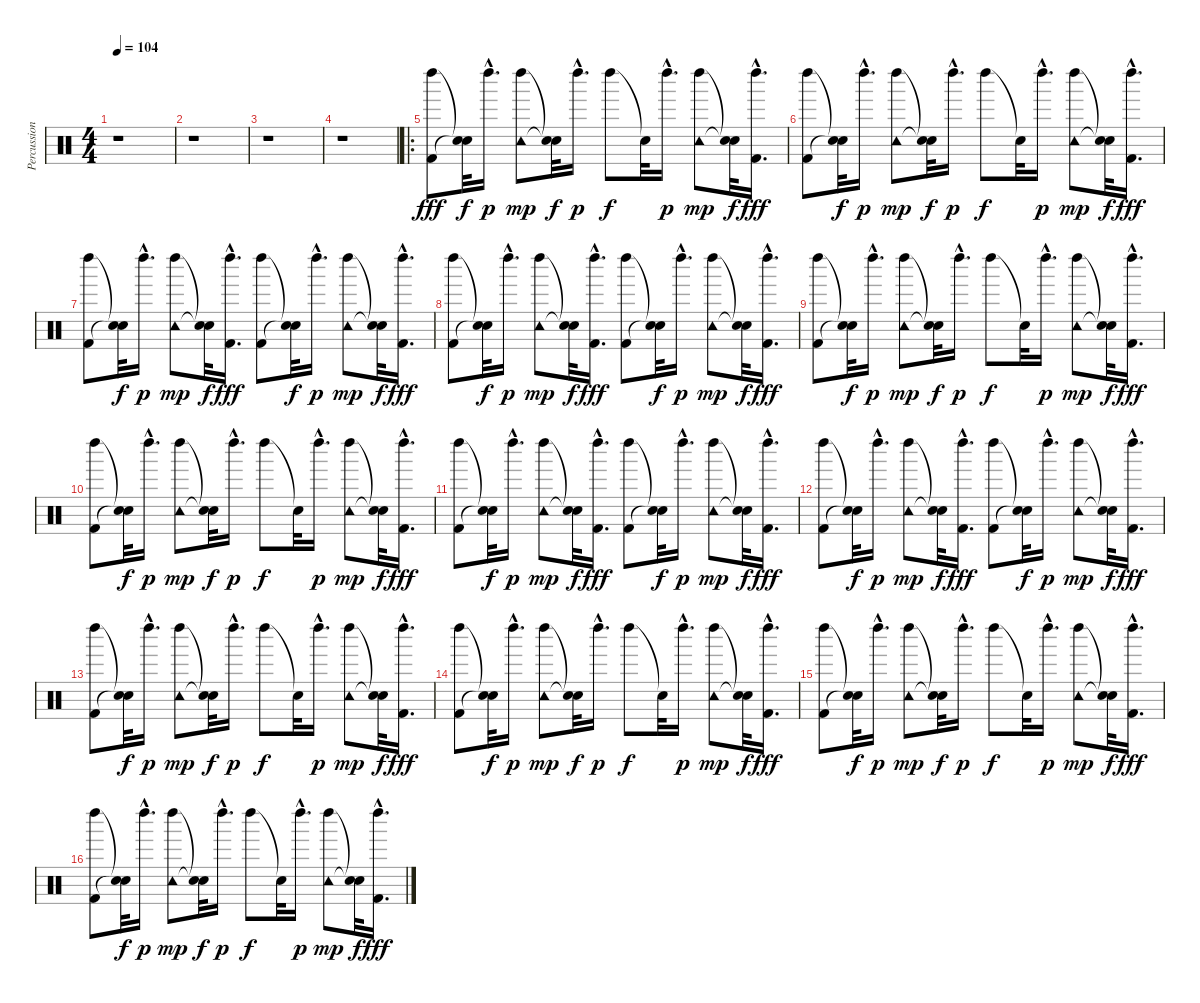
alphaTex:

\track ("Percussions" "Percussion") {instrument percussion}
\staff {score}
\articulation defaults
\ts (4 4)
\tempo 104
\clef neutral
\ks c
r.1{dy fff} |
r.1 |
r.1 |
r.1 |
\ro
("Left Maraca (hit)" "Kick (hit) 2").8 ("Snare (hit)"{t} "Snare (hit)"{t}).32{dy f} "Left Maraca (hit)"{hac}.16{d dy p} ("Left Maraca (hit)" "Tambourine (hit)").8{dy mp} ("Snare (hit)"{t} "Snare (hit)"{t}).32{dy f} "Left Maraca (hit)"{hac}.16{d dy p} "Left Maraca (hit)".8{dy f} "Snare (hit)"{t}.32 "Left Maraca (hit)"{hac}.16{d dy p} ("Left Maraca (hit)" "Tambourine (hit)").8{dy mp} ("Snare (hit)"{t} "Snare (hit)"{t}).32{dy f} ("Left Maraca (hit)"{hac} "Kick (hit) 2"{hac}).16{d dy fff} |
("Left Maraca (hit)" "Kick (hit) 2").8 ("Snare (hit)"{t} "Snare (hit)"{t}).32{dy f} "Left Maraca (hit)"{hac}.16{d dy p} ("Left Maraca (hit)" "Tambourine (hit)").8{dy mp} ("Snare (hit)"{t} "Snare (hit)"{t}).32{dy f} "Left Maraca (hit)"{hac}.16{d dy p} "Left Maraca (hit)".8{dy f} "Snare (hit)"{t}.32 "Left Maraca (hit)"{hac}.16{d dy p} ("Left Maraca (hit)" "Tambourine (hit)").8{dy mp} ("Snare (hit)"{t} "Snare (hit)"{t}).32{dy f} ("Left Maraca (hit)"{hac} "Kick (hit) 2"{hac}).16{d dy fff} |
("Left Maraca (hit)" "Kick (hit) 2").8 ("Snare (hit)"{t} "Snare (hit)"{t}).32{dy f} "Left Maraca (hit)"{hac}.16{d dy p} ("Left Maraca (hit)" "Tambourine (hit)").8{dy mp} ("Snare (hit)"{t} "Snare (hit)"{t}).32{dy f} ("Left Maraca (hit)"{hac} "Kick (hit) 2"{hac}).16{d dy fff} ("Left Maraca (hit)" "Kick (hit) 2").8 ("Snare (hit)"{t} "Snare (hit)"{t}).32{dy f} "Left Maraca (hit)"{hac}.16{d dy p} ("Left Maraca (hit)" "Tambourine (hit)").8{dy mp} ("Snare (hit)"{t} "Snare (hit)"{t}).32{dy f} ("Left Maraca (hit)"{hac} "Kick (hit) 2"{hac}).16{d dy fff} |
("Left Maraca (hit)" "Kick (hit) 2").8 ("Snare (hit)"{t} "Snare (hit)"{t}).32{dy f} "Left Maraca (hit)"{hac}.16{d dy p} ("Left Maraca (hit)" "Tambourine (hit)").8{dy mp} ("Snare (hit)"{t} "Snare (hit)"{t}).32{dy f} ("Left Maraca (hit)"{hac} "Kick (hit) 2"{hac}).16{d dy fff} ("Left Maraca (hit)" "Kick (hit) 2").8 ("Snare (hit)"{t} "Snare (hit)"{t}).32{dy f} "Left Maraca (hit)"{hac}.16{d dy p} ("Left Maraca (hit)" "Tambourine (hit)").8{dy mp} ("Snare (hit)"{t} "Snare (hit)"{t}).32{dy f} ("Left Maraca (hit)"{hac} "Kick (hit) 2"{hac}).16{d dy fff} |
("Left Maraca (hit)" "Kick (hit) 2").8 ("Snare (hit)"{t} "Snare (hit)"{t}).32{dy f} "Left Maraca (hit)"{hac}.16{d dy p} ("Left Maraca (hit)" "Tambourine (hit)").8{dy mp} ("Snare (hit)"{t} "Snare (hit)"{t}).32{dy f} "Left Maraca (hit)"{hac}.16{d dy p} "Left Maraca (hit)".8{dy f} "Snare (hit)"{t}.32 "Left Maraca (hit)"{hac}.16{d dy p} ("Left Maraca (hit)" "Tambourine (hit)").8{dy mp} ("Snare (hit)"{t} "Snare (hit)"{t}).32{dy f} ("Left Maraca (hit)"{hac} "Kick (hit) 2"{hac}).16{d dy fff} |
("Left Maraca (hit)" "Kick (hit) 2").8 ("Snare (hit)"{t} "Snare (hit)"{t}).32{dy f} "Left Maraca (hit)"{hac}.16{d dy p} ("Left Maraca (hit)" "Tambourine (hit)").8{dy mp} ("Snare (hit)"{t} "Snare (hit)"{t}).32{dy f} "Left Maraca (hit)"{hac}.16{d dy p} "Left Maraca (hit)".8{dy f} "Snare (hit)"{t}.32 "Left Maraca (hit)"{hac}.16{d dy p} ("Left Maraca (hit)" "Tambourine (hit)").8{dy mp} ("Snare (hit)"{t} "Snare (hit)"{t}).32{dy f} ("Left Maraca (hit)"{hac} "Kick (hit) 2"{hac}).16{d dy fff} |
("Left Maraca (hit)" "Kick (hit) 2").8 ("Snare (hit)"{t} "Snare (hit)"{t}).32{dy f} "Left Maraca (hit)"{hac}.16{d dy p} ("Left Maraca (hit)" "Tambourine (hit)").8{dy mp} ("Snare (hit)"{t} "Snare (hit)"{t}).32{dy f} ("Left Maraca (hit)"{hac} "Kick (hit) 2"{hac}).16{d dy fff} ("Left Maraca (hit)" "Kick (hit) 2").8 ("Snare (hit)"{t} "Snare (hit)"{t}).32{dy f} "Left Maraca (hit)"{hac}.16{d dy p} ("Left Maraca (hit)" "Tambourine (hit)").8{dy mp} ("Snare (hit)"{t} "Snare (hit)"{t}).32{dy f} ("Left Maraca (hit)"{hac} "Kick (hit) 2"{hac}).16{d dy fff} |
("Left Maraca (hit)" "Kick (hit) 2").8 ("Snare (hit)"{t} "Snare (hit)"{t}).32{dy f} "Left Maraca (hit)"{hac}.16{d dy p} ("Left Maraca (hit)" "Tambourine (hit)").8{dy mp} ("Snare (hit)"{t} "Snare (hit)"{t}).32{dy f} ("Left Maraca (hit)"{hac} "Kick (hit) 2"{hac}).16{d dy fff} ("Left Maraca (hit)" "Kick (hit) 2").8 ("Snare (hit)"{t} "Snare (hit)"{t}).32{dy f} "Left Maraca (hit)"{hac}.16{d dy p} ("Left Maraca (hit)" "Tambourine (hit)").8{dy mp} ("Snare (hit)"{t} "Snare (hit)"{t}).32{dy f} ("Left Maraca (hit)"{hac} "Kick (hit) 2"{hac}).16{d dy fff} |
("Left Maraca (hit)" "Kick (hit) 2").8 ("Snare (hit)"{t} "Snare (hit)"{t}).32{dy f} "Left Maraca (hit)"{hac}.16{d dy p} ("Left Maraca (hit)" "Tambourine (hit)").8{dy mp} ("Snare (hit)"{t} "Snare (hit)"{t}).32{dy f} "Left Maraca (hit)"{hac}.16{d dy p} "Left Maraca (hit)".8{dy f} "Snare (hit)"{t}.32 "Left Maraca (hit)"{hac}.16{d dy p} ("Left Maraca (hit)" "Tambourine (hit)").8{dy mp} ("Snare (hit)"{t} "Snare (hit)"{t}).32{dy f} ("Left Maraca (hit)"{hac} "Kick (hit) 2"{hac}).16{d dy fff} |
("Left Maraca (hit)" "Kick (hit) 2").8 ("Snare (hit)"{t} "Snare (hit)"{t}).32{dy f} "Left Maraca (hit)"{hac}.16{d dy p} ("Left Maraca (hit)" "Tambourine (hit)").8{dy mp} ("Snare (hit)"{t} "Snare (hit)"{t}).32{dy f} "Left Maraca (hit)"{hac}.16{d dy p} "Left Maraca (hit)".8{dy f} "Snare (hit)"{t}.32 "Left Maraca (hit)"{hac}.16{d dy p} ("Left Maraca (hit)" "Tambourine (hit)").8{dy mp} ("Snare (hit)"{t} "Snare (hit)"{t}).32{dy f} ("Left Maraca (hit)"{hac} "Kick (hit) 2"{hac}).16{d dy fff} |
("Left Maraca (hit)" "Kick (hit) 2").8 ("Snare (hit)"{t} "Snare (hit)"{t}).32{dy f} "Left Maraca (hit)"{hac}.16{d dy p} ("Left Maraca (hit)" "Tambourine (hit)").8{dy mp} ("Snare (hit)"{t} "Snare (hit)"{t}).32{dy f} "Left Maraca (hit)"{hac}.16{d dy p} "Left Maraca (hit)".8{dy f} "Snare (hit)"{t}.32 "Left Maraca (hit)"{hac}.16{d dy p} ("Left Maraca (hit)" "Tambourine (hit)").8{dy mp} ("Snare (hit)"{t} "Snare (hit)"{t}).32{dy f} ("Left Maraca (hit)"{hac} "Kick (hit) 2"{hac}).16{d dy fff} |
("Left Maraca (hit)" "Kick (hit) 2").8 ("Snare (hit)"{t} "Snare (hit)"{t}).32{dy f} "Left Maraca (hit)"{hac}.16{d dy p} ("Left Maraca (hit)" "Tambourine (hit)").8{dy mp} ("Snare (hit)"{t} "Snare (hit)"{t}).32{dy f} "Left Maraca (hit)"{hac}.16{d dy p} "Left Maraca (hit)".8{dy f} "Snare (hit)"{t}.32 "Left Maraca (hit)"{hac}.16{d dy p} ("Left Maraca (hit)" "Tambourine (hit)").8{dy mp} ("Snare (hit)"{t} "Snare (hit)"{t}).32{dy f} ("Left Maraca (hit)"{hac} "Kick (hit) 2"{hac}).16{d dy fff}
